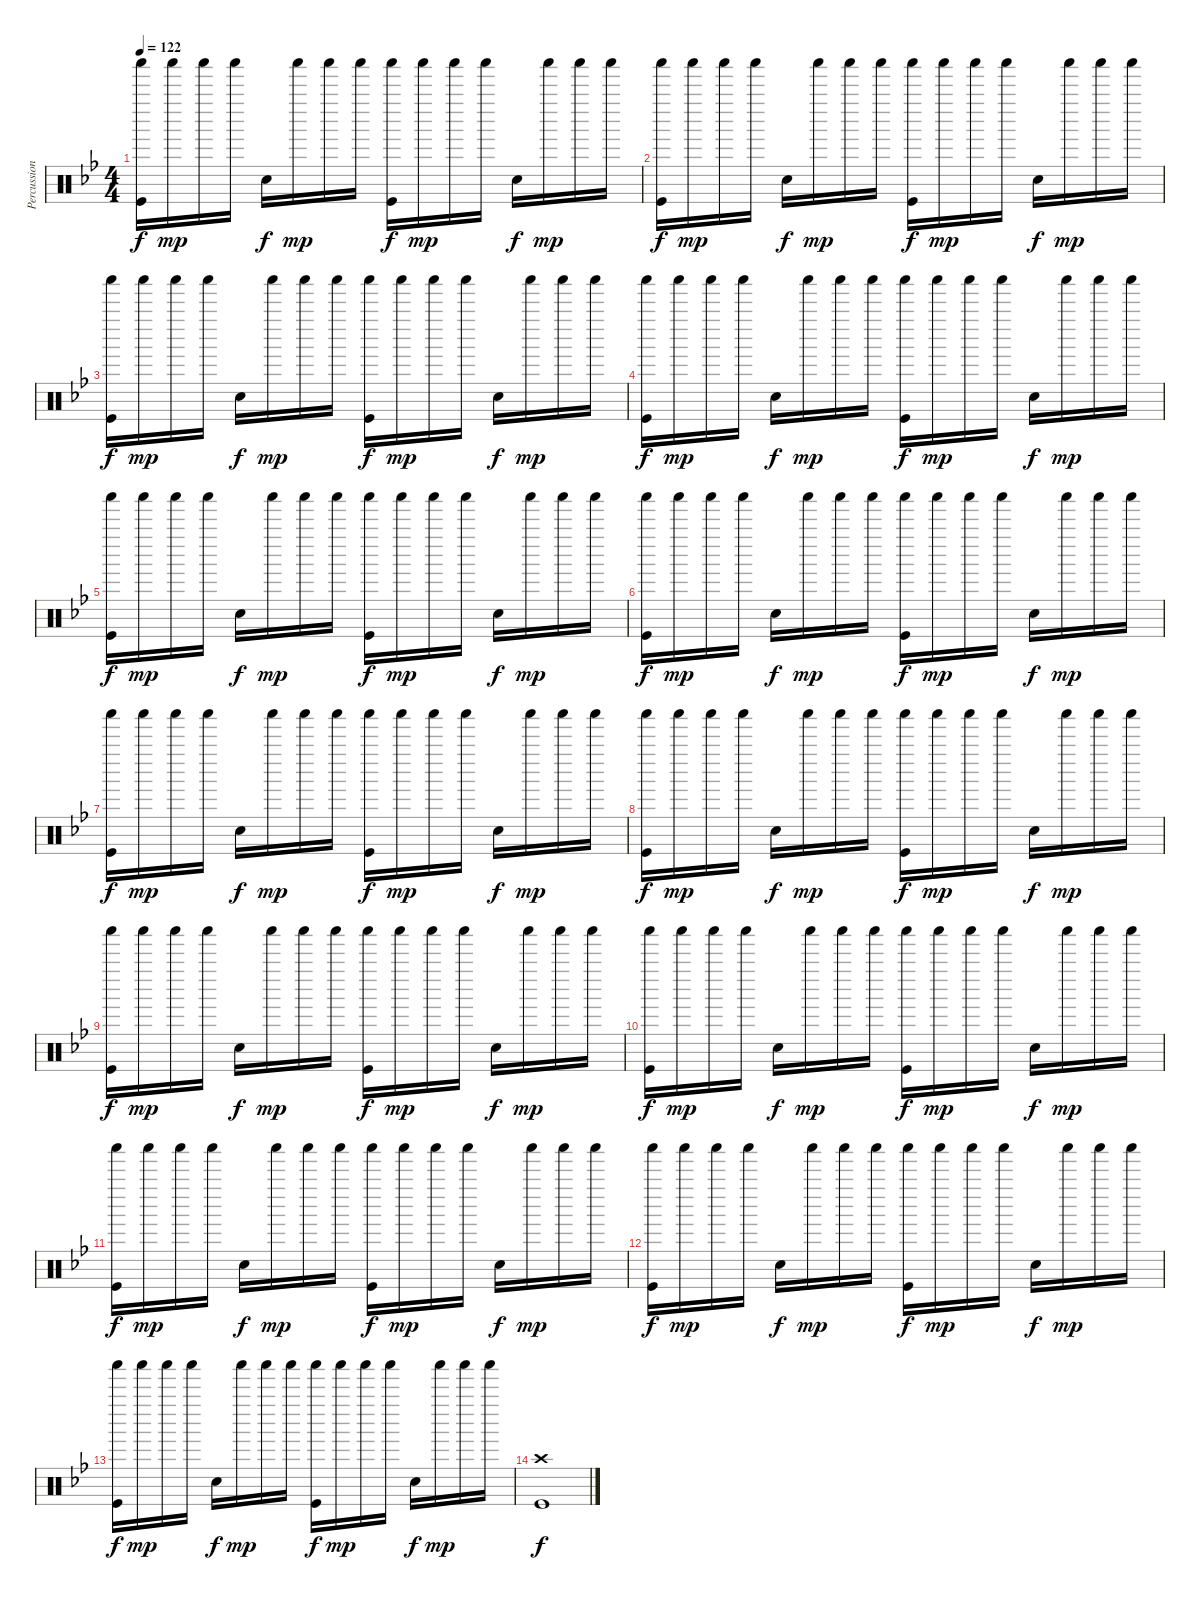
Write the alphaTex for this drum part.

\track ("Percussions" "Percussion") {instrument percussion}
\staff {score}
\articulation defaults
\ts (4 4)
\tempo 122
\clef neutral
\ks bb
("Shaker (hit)" "Kick (hit)").16{dy f} "Shaker (hit)".16{dy mp} "Shaker (hit)".16 "Shaker (hit)".16 "Snare (hit) 2".16{dy f} "Shaker (hit)".16{dy mp} "Shaker (hit)".16 "Shaker (hit)".16 ("Shaker (hit)" "Kick (hit)").16{dy f} "Shaker (hit)".16{dy mp} "Shaker (hit)".16 "Shaker (hit)".16 "Snare (hit) 2".16{dy f} "Shaker (hit)".16{dy mp} "Shaker (hit)".16 "Shaker (hit)".16 |
("Shaker (hit)" "Kick (hit)").16{dy f} "Shaker (hit)".16{dy mp} "Shaker (hit)".16 "Shaker (hit)".16 "Snare (hit) 2".16{dy f} "Shaker (hit)".16{dy mp} "Shaker (hit)".16 "Shaker (hit)".16 ("Shaker (hit)" "Kick (hit)").16{dy f} "Shaker (hit)".16{dy mp} "Shaker (hit)".16 "Shaker (hit)".16 "Snare (hit) 2".16{dy f} "Shaker (hit)".16{dy mp} "Shaker (hit)".16 "Shaker (hit)".16 |
("Shaker (hit)" "Kick (hit)").16{dy f} "Shaker (hit)".16{dy mp} "Shaker (hit)".16 "Shaker (hit)".16 "Snare (hit) 2".16{dy f} "Shaker (hit)".16{dy mp} "Shaker (hit)".16 "Shaker (hit)".16 ("Shaker (hit)" "Kick (hit)").16{dy f} "Shaker (hit)".16{dy mp} "Shaker (hit)".16 "Shaker (hit)".16 "Snare (hit) 2".16{dy f} "Shaker (hit)".16{dy mp} "Shaker (hit)".16 "Shaker (hit)".16 |
("Shaker (hit)" "Kick (hit)").16{dy f} "Shaker (hit)".16{dy mp} "Shaker (hit)".16 "Shaker (hit)".16 "Snare (hit) 2".16{dy f} "Shaker (hit)".16{dy mp} "Shaker (hit)".16 "Shaker (hit)".16 ("Shaker (hit)" "Kick (hit)").16{dy f} "Shaker (hit)".16{dy mp} "Shaker (hit)".16 "Shaker (hit)".16 "Snare (hit) 2".16{dy f} "Shaker (hit)".16{dy mp} "Shaker (hit)".16 "Shaker (hit)".16 |
("Shaker (hit)" "Kick (hit)").16{dy f} "Shaker (hit)".16{dy mp} "Shaker (hit)".16 "Shaker (hit)".16 "Snare (hit) 2".16{dy f} "Shaker (hit)".16{dy mp} "Shaker (hit)".16 "Shaker (hit)".16 ("Shaker (hit)" "Kick (hit)").16{dy f} "Shaker (hit)".16{dy mp} "Shaker (hit)".16 "Shaker (hit)".16 "Snare (hit) 2".16{dy f} "Shaker (hit)".16{dy mp} "Shaker (hit)".16 "Shaker (hit)".16 |
("Shaker (hit)" "Kick (hit)").16{dy f} "Shaker (hit)".16{dy mp} "Shaker (hit)".16 "Shaker (hit)".16 "Snare (hit) 2".16{dy f} "Shaker (hit)".16{dy mp} "Shaker (hit)".16 "Shaker (hit)".16 ("Shaker (hit)" "Kick (hit)").16{dy f} "Shaker (hit)".16{dy mp} "Shaker (hit)".16 "Shaker (hit)".16 "Snare (hit) 2".16{dy f} "Shaker (hit)".16{dy mp} "Shaker (hit)".16 "Shaker (hit)".16 |
("Shaker (hit)" "Kick (hit)").16{dy f} "Shaker (hit)".16{dy mp} "Shaker (hit)".16 "Shaker (hit)".16 "Snare (hit) 2".16{dy f} "Shaker (hit)".16{dy mp} "Shaker (hit)".16 "Shaker (hit)".16 ("Shaker (hit)" "Kick (hit)").16{dy f} "Shaker (hit)".16{dy mp} "Shaker (hit)".16 "Shaker (hit)".16 "Snare (hit) 2".16{dy f} "Shaker (hit)".16{dy mp} "Shaker (hit)".16 "Shaker (hit)".16 |
("Shaker (hit)" "Kick (hit)").16{dy f} "Shaker (hit)".16{dy mp} "Shaker (hit)".16 "Shaker (hit)".16 "Snare (hit) 2".16{dy f} "Shaker (hit)".16{dy mp} "Shaker (hit)".16 "Shaker (hit)".16 ("Shaker (hit)" "Kick (hit)").16{dy f} "Shaker (hit)".16{dy mp} "Shaker (hit)".16 "Shaker (hit)".16 "Snare (hit) 2".16{dy f} "Shaker (hit)".16{dy mp} "Shaker (hit)".16 "Shaker (hit)".16 |
("Shaker (hit)" "Kick (hit)").16{dy f} "Shaker (hit)".16{dy mp} "Shaker (hit)".16 "Shaker (hit)".16 "Snare (hit) 2".16{dy f} "Shaker (hit)".16{dy mp} "Shaker (hit)".16 "Shaker (hit)".16 ("Shaker (hit)" "Kick (hit)").16{dy f} "Shaker (hit)".16{dy mp} "Shaker (hit)".16 "Shaker (hit)".16 "Snare (hit) 2".16{dy f} "Shaker (hit)".16{dy mp} "Shaker (hit)".16 "Shaker (hit)".16 |
("Shaker (hit)" "Kick (hit)").16{dy f} "Shaker (hit)".16{dy mp} "Shaker (hit)".16 "Shaker (hit)".16 "Snare (hit) 2".16{dy f} "Shaker (hit)".16{dy mp} "Shaker (hit)".16 "Shaker (hit)".16 ("Shaker (hit)" "Kick (hit)").16{dy f} "Shaker (hit)".16{dy mp} "Shaker (hit)".16 "Shaker (hit)".16 "Snare (hit) 2".16{dy f} "Shaker (hit)".16{dy mp} "Shaker (hit)".16 "Shaker (hit)".16 |
("Shaker (hit)" "Kick (hit)").16{dy f} "Shaker (hit)".16{dy mp} "Shaker (hit)".16 "Shaker (hit)".16 "Snare (hit) 2".16{dy f} "Shaker (hit)".16{dy mp} "Shaker (hit)".16 "Shaker (hit)".16 ("Shaker (hit)" "Kick (hit)").16{dy f} "Shaker (hit)".16{dy mp} "Shaker (hit)".16 "Shaker (hit)".16 "Snare (hit) 2".16{dy f} "Shaker (hit)".16{dy mp} "Shaker (hit)".16 "Shaker (hit)".16 |
("Shaker (hit)" "Kick (hit)").16{dy f} "Shaker (hit)".16{dy mp} "Shaker (hit)".16 "Shaker (hit)".16 "Snare (hit) 2".16{dy f} "Shaker (hit)".16{dy mp} "Shaker (hit)".16 "Shaker (hit)".16 ("Shaker (hit)" "Kick (hit)").16{dy f} "Shaker (hit)".16{dy mp} "Shaker (hit)".16 "Shaker (hit)".16 "Snare (hit) 2".16{dy f} "Shaker (hit)".16{dy mp} "Shaker (hit)".16 "Shaker (hit)".16 |
("Shaker (hit)" "Kick (hit)").16{dy f} "Shaker (hit)".16{dy mp} "Shaker (hit)".16 "Shaker (hit)".16 "Snare (hit) 2".16{dy f} "Shaker (hit)".16{dy mp} "Shaker (hit)".16 "Shaker (hit)".16 ("Shaker (hit)" "Kick (hit)").16{dy f} "Shaker (hit)".16{dy mp} "Shaker (hit)".16 "Shaker (hit)".16 "Snare (hit) 2".16{dy f} "Shaker (hit)".16{dy mp} "Shaker (hit)".16 "Shaker (hit)".16 |
("Crash high (hit)" "Kick (hit)").1{dy f}
